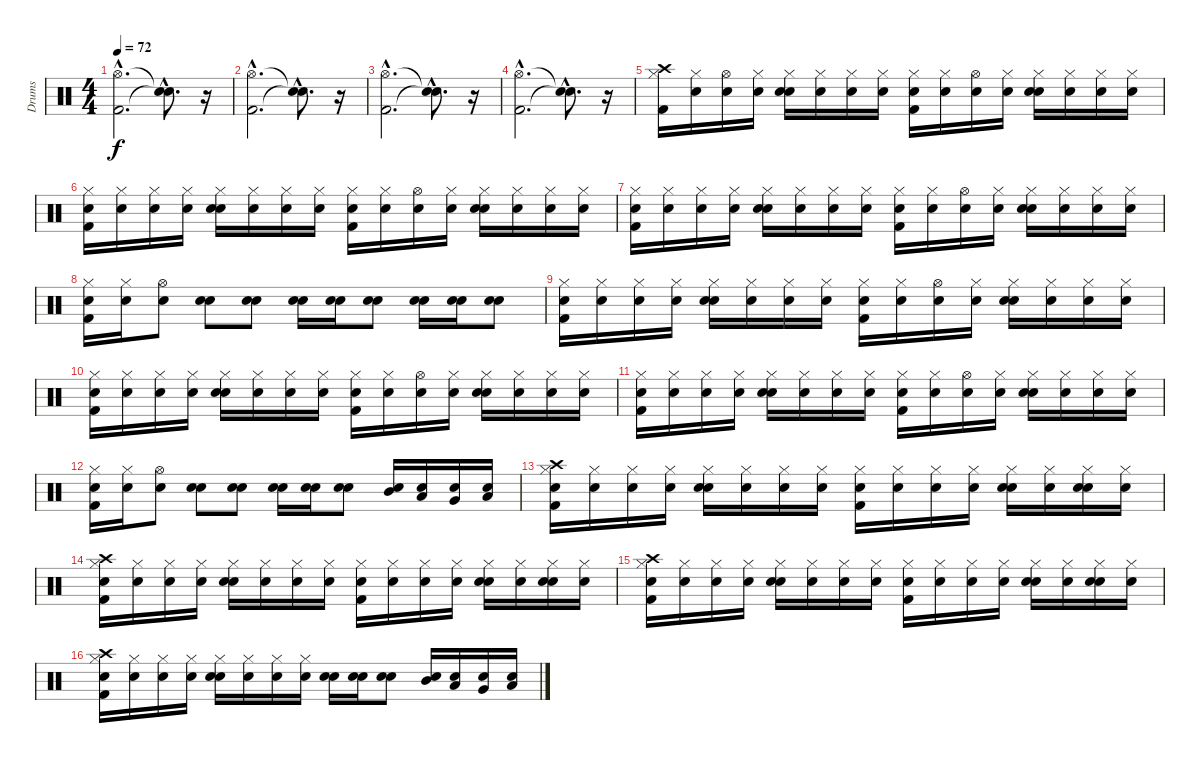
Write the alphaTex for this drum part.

\track ("Drums" "Drums") {instrument percussion}
\staff {score}
\articulation defaults
\ts (4 4)
\tempo 72
\clef neutral
\ks c
("Kick (hit) 2"{hac} "Hi-Hat (open)"{hac}).2{d dy f} ("Snare (hit)"{hac t} "Snare (hit)"{hac t}).8{d} r.16 |
("Kick (hit) 2"{hac} "Hi-Hat (open)"{hac}).2{d} ("Snare (hit)"{hac t} "Snare (hit)"{hac t}).8{d} r.16 |
("Kick (hit) 2"{hac} "Hi-Hat (open)"{hac}).2{d} ("Snare (hit)"{hac t} "Snare (hit)"{hac t}).8{d} r.16 |
("Kick (hit) 2"{hac} "Hi-Hat (open)"{hac}).2{d} ("Snare (hit)"{hac t} "Snare (hit)"{hac t}).8{d} r.16 |
("Kick (hit) 2" "Hi-Hat (closed)" "Crash high (hit)").16 ("Snare (hit)" "Hi-Hat (closed)").16 ("Snare (hit)" "Hi-Hat (open)").16 ("Snare (hit)" "Hi-Hat (closed)").16 ("Snare (hit)" "Snare (hit) 2" "Hi-Hat (closed)").16 ("Snare (hit)" "Hi-Hat (closed)").16 ("Snare (hit)" "Hi-Hat (closed)").16 ("Snare (hit)" "Hi-Hat (closed)").16 ("Snare (hit)" "Kick (hit) 2" "Hi-Hat (closed)").16 ("Snare (hit)" "Hi-Hat (closed)").16 ("Snare (hit)" "Hi-Hat (open)").16 ("Snare (hit)" "Hi-Hat (closed)").16 ("Snare (hit)" "Snare (hit) 2" "Hi-Hat (closed)").16 ("Snare (hit)" "Hi-Hat (closed)").16 ("Snare (hit)" "Hi-Hat (closed)").16 ("Snare (hit)" "Hi-Hat (closed)").16 |
("Snare (hit)" "Kick (hit) 2" "Hi-Hat (closed)").16 ("Snare (hit)" "Hi-Hat (closed)").16 ("Snare (hit)" "Hi-Hat (closed)").16 ("Snare (hit)" "Hi-Hat (closed)").16 ("Snare (hit)" "Snare (hit) 2" "Hi-Hat (closed)").16 ("Snare (hit)" "Hi-Hat (closed)").16 ("Snare (hit)" "Hi-Hat (closed)").16 ("Snare (hit)" "Hi-Hat (closed)").16 ("Snare (hit)" "Kick (hit) 2" "Hi-Hat (closed)").16 ("Snare (hit)" "Hi-Hat (closed)").16 ("Snare (hit)" "Hi-Hat (open)").16 ("Snare (hit)" "Hi-Hat (closed)").16 ("Snare (hit)" "Snare (hit) 2" "Hi-Hat (closed)").16 ("Snare (hit)" "Hi-Hat (closed)").16 ("Snare (hit)" "Hi-Hat (closed)").16 ("Snare (hit)" "Hi-Hat (closed)").16 |
("Snare (hit)" "Kick (hit) 2" "Hi-Hat (closed)").16 ("Snare (hit)" "Hi-Hat (closed)").16 ("Snare (hit)" "Hi-Hat (closed)").16 ("Snare (hit)" "Hi-Hat (closed)").16 ("Snare (hit)" "Snare (hit) 2" "Hi-Hat (closed)").16 ("Snare (hit)" "Hi-Hat (closed)").16 ("Snare (hit)" "Hi-Hat (closed)").16 ("Snare (hit)" "Hi-Hat (closed)").16 ("Snare (hit)" "Kick (hit) 2" "Hi-Hat (closed)").16 ("Snare (hit)" "Hi-Hat (closed)").16 ("Snare (hit)" "Hi-Hat (open)").16 ("Snare (hit)" "Hi-Hat (closed)").16 ("Snare (hit)" "Snare (hit) 2" "Hi-Hat (closed)").16 ("Snare (hit)" "Hi-Hat (closed)").16 ("Snare (hit)" "Hi-Hat (closed)").16 ("Snare (hit)" "Hi-Hat (closed)").16 |
("Snare (hit)" "Kick (hit) 2" "Hi-Hat (closed)").16 ("Snare (hit)" "Hi-Hat (closed)").16 ("Snare (hit)" "Hi-Hat (open)").8 ("Snare (hit)" "Snare (hit) 2").8 ("Snare (hit)" "Snare (hit) 2").8 ("Snare (hit)" "Snare (hit) 2").16 ("Snare (hit)" "Snare (hit) 2").16 ("Snare (hit)" "Snare (hit) 2").8 ("Snare (hit)" "Snare (hit) 2").16 ("Snare (hit)" "Snare (hit) 2").16 ("Snare (hit)" "Snare (hit) 2").8 |
("Snare (hit)" "Kick (hit) 2" "Hi-Hat (closed)").16 ("Snare (hit)" "Hi-Hat (closed)").16 ("Snare (hit)" "Hi-Hat (closed)").16 ("Snare (hit)" "Hi-Hat (closed)").16 ("Snare (hit)" "Snare (hit) 2" "Hi-Hat (closed)").16 ("Snare (hit)" "Hi-Hat (closed)").16 ("Snare (hit)" "Hi-Hat (closed)").16 ("Snare (hit)" "Hi-Hat (closed)").16 ("Snare (hit)" "Kick (hit) 2" "Hi-Hat (closed)").16 ("Snare (hit)" "Hi-Hat (closed)").16 ("Snare (hit)" "Hi-Hat (open)").16 ("Snare (hit)" "Hi-Hat (closed)").16 ("Snare (hit)" "Snare (hit) 2" "Hi-Hat (closed)").16 ("Snare (hit)" "Hi-Hat (closed)").16 ("Snare (hit)" "Hi-Hat (closed)").16 ("Snare (hit)" "Hi-Hat (closed)").16 |
("Snare (hit)" "Kick (hit) 2" "Hi-Hat (closed)").16 ("Snare (hit)" "Hi-Hat (closed)").16 ("Snare (hit)" "Hi-Hat (closed)").16 ("Snare (hit)" "Hi-Hat (closed)").16 ("Snare (hit)" "Snare (hit) 2" "Hi-Hat (closed)").16 ("Snare (hit)" "Hi-Hat (closed)").16 ("Snare (hit)" "Hi-Hat (closed)").16 ("Snare (hit)" "Hi-Hat (closed)").16 ("Snare (hit)" "Kick (hit) 2" "Hi-Hat (closed)").16 ("Snare (hit)" "Hi-Hat (closed)").16 ("Snare (hit)" "Hi-Hat (open)").16 ("Snare (hit)" "Hi-Hat (closed)").16 ("Snare (hit)" "Snare (hit) 2" "Hi-Hat (closed)").16 ("Snare (hit)" "Hi-Hat (closed)").16 ("Snare (hit)" "Hi-Hat (closed)").16 ("Snare (hit)" "Hi-Hat (closed)").16 |
("Snare (hit)" "Kick (hit) 2" "Hi-Hat (closed)").16 ("Snare (hit)" "Hi-Hat (closed)").16 ("Snare (hit)" "Hi-Hat (closed)").16 ("Snare (hit)" "Hi-Hat (closed)").16 ("Snare (hit)" "Snare (hit) 2" "Hi-Hat (closed)").16 ("Snare (hit)" "Hi-Hat (closed)").16 ("Snare (hit)" "Hi-Hat (closed)").16 ("Snare (hit)" "Hi-Hat (closed)").16 ("Snare (hit)" "Kick (hit) 2" "Hi-Hat (closed)").16 ("Snare (hit)" "Hi-Hat (closed)").16 ("Snare (hit)" "Hi-Hat (open)").16 ("Snare (hit)" "Hi-Hat (closed)").16 ("Snare (hit)" "Snare (hit) 2" "Hi-Hat (closed)").16 ("Snare (hit)" "Hi-Hat (closed)").16 ("Snare (hit)" "Hi-Hat (closed)").16 ("Snare (hit)" "Hi-Hat (closed)").16 |
("Snare (hit)" "Kick (hit) 2" "Hi-Hat (closed)").16 ("Snare (hit)" "Hi-Hat (closed)").16 ("Snare (hit)" "Hi-Hat (open)").8 ("Snare (hit)" "Snare (hit) 2").8 ("Snare (hit)" "Snare (hit) 2").8 ("Snare (hit)" "Snare (hit) 2").16 ("Snare (hit)" "Snare (hit) 2").16 ("Snare (hit)" "Snare (hit) 2").8 ("Snare (hit)" "Mid Tom (hit)").16 ("Snare (hit)" "Low Tom (hit)").16 ("Snare (hit)" "Very Low Tom (hit)").16 ("Snare (hit)" "Low Floor Tom (hit)").16 |
("Snare (hit)" "Kick (hit) 2" "Hi-Hat (closed)" "Crash high (hit)").16 ("Snare (hit)" "Hi-Hat (closed)").16 ("Snare (hit)" "Hi-Hat (closed)").16 ("Snare (hit)" "Hi-Hat (closed)").16 ("Snare (hit)" "Snare (hit) 2" "Hi-Hat (closed)").16 ("Snare (hit)" "Hi-Hat (closed)").16 ("Snare (hit)" "Hi-Hat (closed)").16 ("Snare (hit)" "Hi-Hat (closed)").16 ("Snare (hit)" "Kick (hit) 2" "Hi-Hat (closed)").16 ("Snare (hit)" "Hi-Hat (closed)").16 ("Snare (hit)" "Hi-Hat (closed)").16 ("Snare (hit)" "Hi-Hat (closed)").16 ("Snare (hit)" "Snare (hit) 2" "Hi-Hat (closed)").16 ("Snare (hit)" "Hi-Hat (closed)").16 ("Snare (hit)" "Snare (hit) 2" "Hi-Hat (closed)").16 ("Snare (hit)" "Hi-Hat (closed)").16 |
("Snare (hit)" "Kick (hit) 2" "Hi-Hat (closed)" "Crash high (hit)").16 ("Snare (hit)" "Hi-Hat (closed)").16 ("Snare (hit)" "Hi-Hat (closed)").16 ("Snare (hit)" "Hi-Hat (closed)").16 ("Snare (hit)" "Snare (hit) 2" "Hi-Hat (closed)").16 ("Snare (hit)" "Hi-Hat (closed)").16 ("Snare (hit)" "Hi-Hat (closed)").16 ("Snare (hit)" "Hi-Hat (closed)").16 ("Snare (hit)" "Kick (hit) 2" "Hi-Hat (closed)").16 ("Snare (hit)" "Hi-Hat (closed)").16 ("Snare (hit)" "Hi-Hat (closed)").16 ("Snare (hit)" "Hi-Hat (closed)").16 ("Snare (hit)" "Snare (hit) 2" "Hi-Hat (closed)").16 ("Snare (hit)" "Hi-Hat (closed)").16 ("Snare (hit)" "Snare (hit) 2" "Hi-Hat (closed)").16 ("Snare (hit)" "Hi-Hat (closed)").16 |
("Snare (hit)" "Kick (hit) 2" "Hi-Hat (closed)" "Crash high (hit)").16 ("Snare (hit)" "Hi-Hat (closed)").16 ("Snare (hit)" "Hi-Hat (closed)").16 ("Snare (hit)" "Hi-Hat (closed)").16 ("Snare (hit)" "Snare (hit) 2" "Hi-Hat (closed)").16 ("Snare (hit)" "Hi-Hat (closed)").16 ("Snare (hit)" "Hi-Hat (closed)").16 ("Snare (hit)" "Hi-Hat (closed)").16 ("Snare (hit)" "Kick (hit) 2" "Hi-Hat (closed)").16 ("Snare (hit)" "Hi-Hat (closed)").16 ("Snare (hit)" "Hi-Hat (closed)").16 ("Snare (hit)" "Hi-Hat (closed)").16 ("Snare (hit)" "Snare (hit) 2" "Hi-Hat (closed)").16 ("Snare (hit)" "Hi-Hat (closed)").16 ("Snare (hit)" "Snare (hit) 2" "Hi-Hat (closed)").16 ("Snare (hit)" "Hi-Hat (closed)").16 |
("Snare (hit)" "Kick (hit) 2" "Hi-Hat (closed)" "Crash high (hit)").16 ("Snare (hit)" "Hi-Hat (closed)").16 ("Snare (hit)" "Hi-Hat (closed)").16 ("Snare (hit)" "Hi-Hat (closed)").16 ("Snare (hit)" "Snare (hit) 2" "Hi-Hat (closed)").16 ("Snare (hit)" "Hi-Hat (closed)").16 ("Snare (hit)" "Hi-Hat (closed)").16 ("Snare (hit)" "Hi-Hat (closed)").16 ("Snare (hit)" "Snare (hit) 2").16 ("Snare (hit)" "Snare (hit) 2").16 ("Snare (hit)" "Snare (hit) 2").8 ("Snare (hit)" "Mid Tom (hit)").16 ("Snare (hit)" "Low Tom (hit)").16 ("Snare (hit)" "Very Low Tom (hit)").16 ("Snare (hit)" "Low Floor Tom (hit)").16
